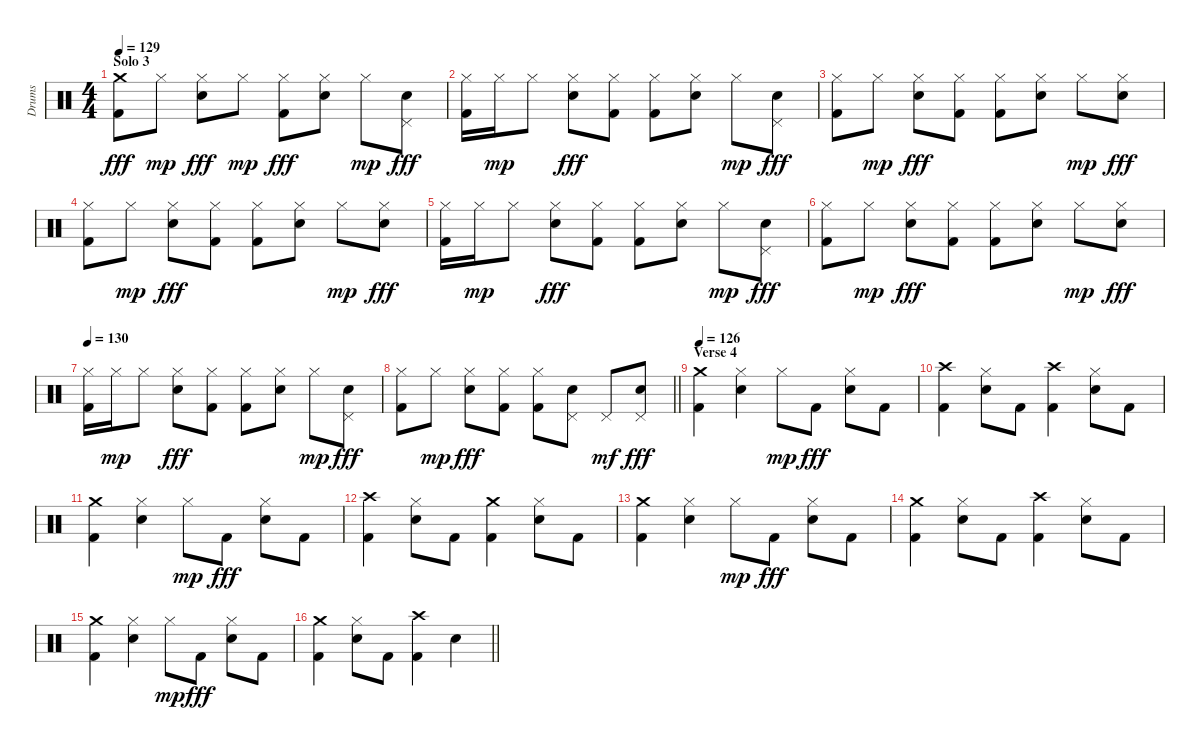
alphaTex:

\track ("Drums" "Drums") {instrument percussion}
\staff {score}
\articulation defaults
\ts (4 4)
\section ("" "Solo 3")
\tempo 129
\clef neutral
\ks c
("Crash medium (hit)" "Kick (hit) 2").8{dy fff} "Hi-Hat (closed)".8{dy mp} ("Hi-Hat (closed)" "Electric Snare (hit)").8{dy fff} "Hi-Hat (closed)".8{dy mp} ("Hi-Hat (closed)" "Kick (hit) 2").8{dy fff} ("Hi-Hat (closed)" "Electric Snare (hit)").8 "Hi-Hat (closed)".8{dy mp} ("Pedal Hi-Hat (hit)" "Electric Snare (hit)").8{dy fff} |
("Hi-Hat (closed)" "Kick (hit) 2").16 "Hi-Hat (closed)".16{dy mp} "Hi-Hat (closed)".8 ("Hi-Hat (closed)" "Electric Snare (hit)").8{dy fff} ("Hi-Hat (closed)" "Kick (hit) 2").8 ("Hi-Hat (closed)" "Kick (hit) 2").8 ("Hi-Hat (closed)" "Electric Snare (hit)").8 "Hi-Hat (closed)".8{dy mp} ("Pedal Hi-Hat (hit)" "Electric Snare (hit)").8{dy fff} |
("Hi-Hat (closed)" "Kick (hit) 2").8 "Hi-Hat (closed)".8{dy mp} ("Hi-Hat (closed)" "Electric Snare (hit)").8{dy fff} ("Hi-Hat (closed)" "Kick (hit) 2").8 ("Hi-Hat (closed)" "Kick (hit) 2").8 ("Hi-Hat (closed)" "Electric Snare (hit)").8 "Hi-Hat (closed)".8{dy mp} ("Hi-Hat (closed)" "Electric Snare (hit)").8{dy fff} |
("Hi-Hat (closed)" "Kick (hit) 2").8 "Hi-Hat (closed)".8{dy mp} ("Hi-Hat (closed)" "Electric Snare (hit)").8{dy fff} ("Hi-Hat (closed)" "Kick (hit) 2").8 ("Hi-Hat (closed)" "Kick (hit) 2").8 ("Hi-Hat (closed)" "Electric Snare (hit)").8 "Hi-Hat (closed)".8{dy mp} ("Hi-Hat (closed)" "Electric Snare (hit)").8{dy fff} |
("Hi-Hat (closed)" "Kick (hit) 2").16 "Hi-Hat (closed)".16{dy mp} "Hi-Hat (closed)".8 ("Hi-Hat (closed)" "Electric Snare (hit)").8{dy fff} ("Hi-Hat (closed)" "Kick (hit) 2").8 ("Hi-Hat (closed)" "Kick (hit) 2").8 ("Hi-Hat (closed)" "Electric Snare (hit)").8 "Hi-Hat (closed)".8{dy mp} ("Pedal Hi-Hat (hit)" "Electric Snare (hit)").8{dy fff} |
("Hi-Hat (closed)" "Kick (hit) 2").8 "Hi-Hat (closed)".8{dy mp} ("Hi-Hat (closed)" "Electric Snare (hit)").8{dy fff} ("Hi-Hat (closed)" "Kick (hit) 2").8 ("Hi-Hat (closed)" "Kick (hit) 2").8 ("Hi-Hat (closed)" "Electric Snare (hit)").8 "Hi-Hat (closed)".8{dy mp} ("Hi-Hat (closed)" "Electric Snare (hit)").8{dy fff} |
\tempo 130
("Hi-Hat (closed)" "Kick (hit) 2").16 "Hi-Hat (closed)".16{dy mp} "Hi-Hat (closed)".8 ("Hi-Hat (closed)" "Electric Snare (hit)").8{dy fff} ("Hi-Hat (closed)" "Kick (hit) 2").8 ("Hi-Hat (closed)" "Kick (hit) 2").8 ("Hi-Hat (closed)" "Electric Snare (hit)").8 "Hi-Hat (closed)".8{dy mp} ("Pedal Hi-Hat (hit)" "Electric Snare (hit)").8{dy fff} |
\barLineRight lightlight
("Hi-Hat (closed)" "Kick (hit) 2").8 "Hi-Hat (closed)".8{dy mp} ("Hi-Hat (closed)" "Electric Snare (hit)").8{dy fff} ("Hi-Hat (closed)" "Kick (hit) 2").8 ("Hi-Hat (closed)" "Kick (hit) 2").8 ("Pedal Hi-Hat (hit)" "Electric Snare (hit)").8 "Pedal Hi-Hat (hit)".8{dy mf} ("Pedal Hi-Hat (hit)" "Electric Snare (hit)").8{dy fff} |
\section ("" "Verse 4")
\tempo 126
("Crash medium (hit)" "Kick (hit) 2").4 ("Hi-Hat (closed)" "Electric Snare (hit)").4 "Hi-Hat (closed)".8{dy mp} "Kick (hit) 2".8{dy fff} ("Hi-Hat (closed)" "Electric Snare (hit)").8 "Kick (hit) 2".8 |
("Crash high (hit)" "Kick (hit) 2").4 ("Hi-Hat (closed)" "Electric Snare (hit)").8 "Kick (hit) 2".8 ("Crash high (hit)" "Kick (hit) 2").4 ("Hi-Hat (closed)" "Electric Snare (hit)").8 "Kick (hit) 2".8 |
("Crash medium (hit)" "Kick (hit) 2").4 ("Hi-Hat (closed)" "Electric Snare (hit)").4 "Hi-Hat (closed)".8{dy mp} "Kick (hit) 2".8{dy fff} ("Hi-Hat (closed)" "Electric Snare (hit)").8 "Kick (hit) 2".8 |
("Crash high (hit)" "Kick (hit) 2").4 ("Hi-Hat (closed)" "Electric Snare (hit)").8 "Kick (hit) 2".8 ("Crash medium (hit)" "Kick (hit) 2").4 ("Hi-Hat (closed)" "Electric Snare (hit)").8 "Kick (hit) 2".8 |
("Crash medium (hit)" "Kick (hit) 2").4 ("Hi-Hat (closed)" "Electric Snare (hit)").4 "Hi-Hat (closed)".8{dy mp} "Kick (hit) 2".8{dy fff} ("Hi-Hat (closed)" "Electric Snare (hit)").8 "Kick (hit) 2".8 |
("Crash medium (hit)" "Kick (hit) 2").4 ("Hi-Hat (closed)" "Electric Snare (hit)").8 "Kick (hit) 2".8 ("Crash high (hit)" "Kick (hit) 2").4 ("Hi-Hat (closed)" "Electric Snare (hit)").8 "Kick (hit) 2".8 |
("Crash medium (hit)" "Kick (hit) 2").4 ("Hi-Hat (closed)" "Electric Snare (hit)").4 "Hi-Hat (closed)".8{dy mp} "Kick (hit) 2".8{dy fff} ("Hi-Hat (closed)" "Electric Snare (hit)").8 "Kick (hit) 2".8 |
\barLineRight lightlight
("Crash medium (hit)" "Kick (hit) 2").4 ("Hi-Hat (closed)" "Electric Snare (hit)").8 "Kick (hit) 2".8 ("Crash high (hit)" "Kick (hit) 2").4 "Electric Snare (hit)".4
